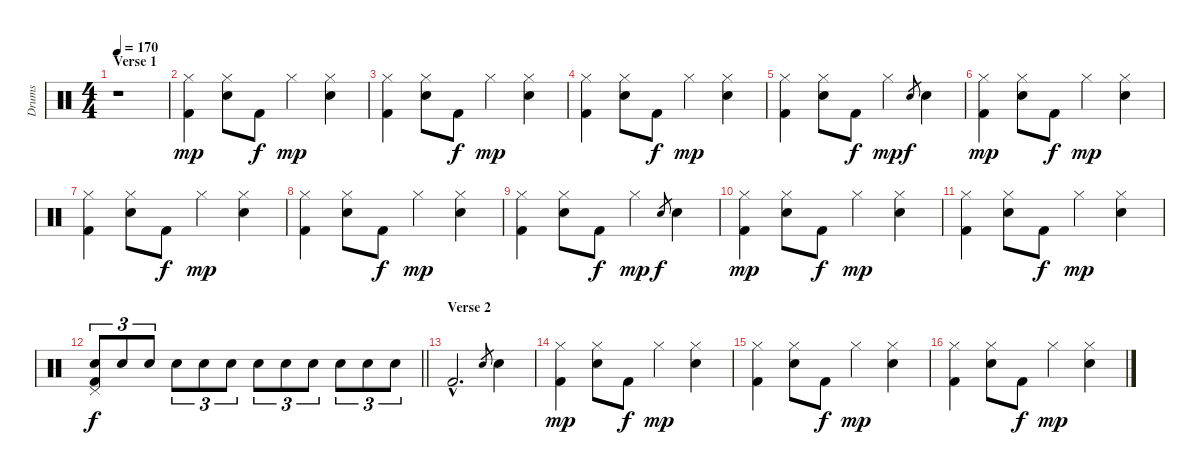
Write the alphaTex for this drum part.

\track ("Drums" "Drums") {instrument percussion}
\staff {score}
\articulation defaults
\ts (4 4)
\section ("" "Verse 1")
\tempo 170
\clef neutral
\ks c
r.1{dy mp} |
("Hi-Hat (closed)" "Kick (hit) 2").4 ("Hi-Hat (closed)" "Electric Snare (hit)").8 "Kick (hit) 2".8{dy f} "Hi-Hat (closed)".4{dy mp} ("Hi-Hat (closed)" "Electric Snare (hit)").4 |
("Hi-Hat (closed)" "Kick (hit) 2").4 ("Hi-Hat (closed)" "Electric Snare (hit)").8 "Kick (hit) 2".8{dy f} "Hi-Hat (closed)".4{dy mp} ("Hi-Hat (closed)" "Electric Snare (hit)").4 |
("Hi-Hat (closed)" "Kick (hit) 2").4 ("Hi-Hat (closed)" "Electric Snare (hit)").8 "Kick (hit) 2".8{dy f} "Hi-Hat (closed)".4{dy mp} ("Hi-Hat (closed)" "Electric Snare (hit)").4 |
("Hi-Hat (closed)" "Kick (hit) 2").4 ("Hi-Hat (closed)" "Electric Snare (hit)").8 "Kick (hit) 2".8{dy f} "Hi-Hat (closed)".4{dy mp} "Electric Snare (hit)".8{gr dy f} "Electric Snare (hit)".4 |
("Hi-Hat (closed)" "Kick (hit) 2").4{dy mp} ("Hi-Hat (closed)" "Electric Snare (hit)").8 "Kick (hit) 2".8{dy f} "Hi-Hat (closed)".4{dy mp} ("Hi-Hat (closed)" "Electric Snare (hit)").4 |
("Hi-Hat (closed)" "Kick (hit) 2").4 ("Hi-Hat (closed)" "Electric Snare (hit)").8 "Kick (hit) 2".8{dy f} "Hi-Hat (closed)".4{dy mp} ("Hi-Hat (closed)" "Electric Snare (hit)").4 |
("Hi-Hat (closed)" "Kick (hit) 2").4 ("Hi-Hat (closed)" "Electric Snare (hit)").8 "Kick (hit) 2".8{dy f} "Hi-Hat (closed)".4{dy mp} ("Hi-Hat (closed)" "Electric Snare (hit)").4 |
("Hi-Hat (closed)" "Kick (hit) 2").4 ("Hi-Hat (closed)" "Electric Snare (hit)").8 "Kick (hit) 2".8{dy f} "Hi-Hat (closed)".4{dy mp} "Electric Snare (hit)".8{gr dy f} "Electric Snare (hit)".4 |
("Hi-Hat (closed)" "Kick (hit) 2").4{dy mp} ("Hi-Hat (closed)" "Electric Snare (hit)").8 "Kick (hit) 2".8{dy f} "Hi-Hat (closed)".4{dy mp} ("Hi-Hat (closed)" "Electric Snare (hit)").4 |
("Hi-Hat (closed)" "Kick (hit) 2").4 ("Hi-Hat (closed)" "Electric Snare (hit)").8 "Kick (hit) 2".8{dy f} "Hi-Hat (closed)".4{dy mp} ("Hi-Hat (closed)" "Electric Snare (hit)").4 |
\barLineRight lightlight
("Pedal Hi-Hat (hit)" "Electric Snare (hit)" "Kick (hit) 2").8{tu (3 2) dy f} "Electric Snare (hit)".8{tu (3 2)} "Electric Snare (hit)".8{tu (3 2)} "Electric Snare (hit)".8{tu (3 2)} "Electric Snare (hit)".8{tu (3 2)} "Electric Snare (hit)".8{tu (3 2)} "Electric Snare (hit)".8{tu (3 2)} "Electric Snare (hit)".8{tu (3 2)} "Electric Snare (hit)".8{tu (3 2)} "Electric Snare (hit)".8{tu (3 2)} "Electric Snare (hit)".8{tu (3 2)} "Electric Snare (hit)".8{tu (3 2)} |
\section ("" "Verse 2")
"Kick (hit) 2"{hac}.2{d} "Snare (hit) 2".8{gr} "Snare (hit) 2".4 |
("Hi-Hat (closed)" "Kick (hit) 2").4{dy mp} ("Hi-Hat (closed)" "Electric Snare (hit)").8 "Kick (hit) 2".8{dy f} "Hi-Hat (closed)".4{dy mp} ("Hi-Hat (closed)" "Electric Snare (hit)").4 |
("Hi-Hat (closed)" "Kick (hit) 2").4 ("Hi-Hat (closed)" "Electric Snare (hit)").8 "Kick (hit) 2".8{dy f} "Hi-Hat (closed)".4{dy mp} ("Hi-Hat (closed)" "Electric Snare (hit)").4 |
("Hi-Hat (closed)" "Kick (hit) 2").4 ("Hi-Hat (closed)" "Electric Snare (hit)").8 "Kick (hit) 2".8{dy f} "Hi-Hat (closed)".4{dy mp} ("Hi-Hat (closed)" "Electric Snare (hit)").4
